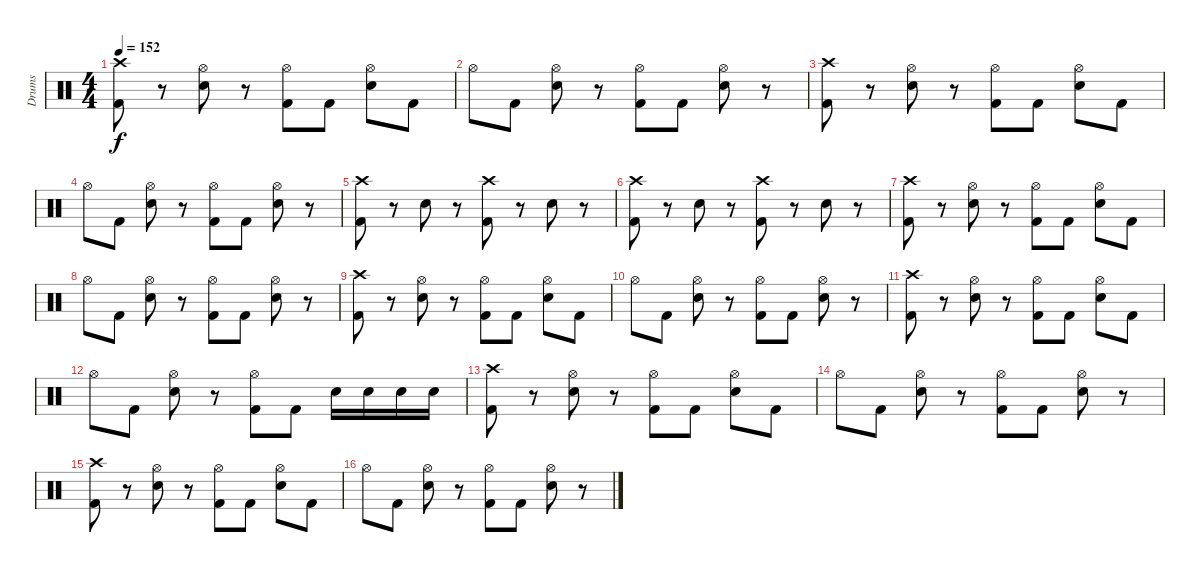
\track ("Drums" "Drums") {instrument percussion}
\staff {score}
\articulation defaults
\ts (4 4)
\tempo 152
\clef neutral
\ks c
("Crash high (hit)" "Kick (hit) 2").8{dy f} r.8 ("Hi-Hat (open)" "Snare (hit) 2").8 r.8 ("Hi-Hat (open)" "Kick (hit) 2").8 "Kick (hit) 2".8 ("Hi-Hat (open)" "Snare (hit) 2").8 "Kick (hit) 2".8 |
"Hi-Hat (open)".8 "Kick (hit) 2".8 ("Hi-Hat (open)" "Snare (hit) 2").8 r.8 ("Hi-Hat (open)" "Kick (hit) 2").8 "Kick (hit) 2".8 ("Hi-Hat (open)" "Snare (hit) 2").8 r.8 |
("Crash high (hit)" "Kick (hit) 2").8 r.8 ("Hi-Hat (open)" "Snare (hit) 2").8 r.8 ("Hi-Hat (open)" "Kick (hit) 2").8 "Kick (hit) 2".8 ("Hi-Hat (open)" "Snare (hit) 2").8 "Kick (hit) 2".8 |
"Hi-Hat (open)".8 "Kick (hit) 2".8 ("Hi-Hat (open)" "Snare (hit) 2").8 r.8 ("Hi-Hat (open)" "Kick (hit) 2").8 "Kick (hit) 2".8 ("Hi-Hat (open)" "Snare (hit) 2").8 r.8 |
("Crash high (hit)" "Kick (hit) 2").8 r.8 "Snare (hit) 2".8 r.8 ("Crash high (hit)" "Kick (hit) 2").8 r.8 "Snare (hit) 2".8 r.8 |
("Crash high (hit)" "Kick (hit) 2").8 r.8 "Snare (hit) 2".8 r.8 ("Crash high (hit)" "Kick (hit) 2").8 r.8 "Snare (hit) 2".8 r.8 |
("Crash high (hit)" "Kick (hit) 2").8 r.8 ("Hi-Hat (open)" "Snare (hit) 2").8 r.8 ("Hi-Hat (open)" "Kick (hit) 2").8 "Kick (hit) 2".8 ("Hi-Hat (open)" "Snare (hit) 2").8 "Kick (hit) 2".8 |
"Hi-Hat (open)".8 "Kick (hit) 2".8 ("Hi-Hat (open)" "Snare (hit) 2").8 r.8 ("Hi-Hat (open)" "Kick (hit) 2").8 "Kick (hit) 2".8 ("Hi-Hat (open)" "Snare (hit) 2").8 r.8 |
("Crash high (hit)" "Kick (hit) 2").8 r.8 ("Hi-Hat (open)" "Snare (hit) 2").8 r.8 ("Hi-Hat (open)" "Kick (hit) 2").8 "Kick (hit) 2".8 ("Hi-Hat (open)" "Snare (hit) 2").8 "Kick (hit) 2".8 |
"Hi-Hat (open)".8 "Kick (hit) 2".8 ("Hi-Hat (open)" "Snare (hit) 2").8 r.8 ("Hi-Hat (open)" "Kick (hit) 2").8 "Kick (hit) 2".8 ("Hi-Hat (open)" "Snare (hit) 2").8 r.8 |
("Crash high (hit)" "Kick (hit) 2").8 r.8 ("Hi-Hat (open)" "Snare (hit) 2").8 r.8 ("Hi-Hat (open)" "Kick (hit) 2").8 "Kick (hit) 2".8 ("Hi-Hat (open)" "Snare (hit) 2").8 "Kick (hit) 2".8 |
"Hi-Hat (open)".8 "Kick (hit) 2".8 ("Hi-Hat (open)" "Snare (hit) 2").8 r.8 ("Hi-Hat (open)" "Kick (hit) 2").8 "Kick (hit) 2".8 "Snare (hit) 2".16 "Snare (hit) 2".16 "Snare (hit) 2".16 "Snare (hit) 2".16 |
("Crash high (hit)" "Kick (hit) 2").8 r.8 ("Hi-Hat (open)" "Snare (hit) 2").8 r.8 ("Hi-Hat (open)" "Kick (hit) 2").8 "Kick (hit) 2".8 ("Hi-Hat (open)" "Snare (hit) 2").8 "Kick (hit) 2".8 |
"Hi-Hat (open)".8 "Kick (hit) 2".8 ("Hi-Hat (open)" "Snare (hit) 2").8 r.8 ("Hi-Hat (open)" "Kick (hit) 2").8 "Kick (hit) 2".8 ("Hi-Hat (open)" "Snare (hit) 2").8 r.8 |
("Crash high (hit)" "Kick (hit) 2").8 r.8 ("Hi-Hat (open)" "Snare (hit) 2").8 r.8 ("Hi-Hat (open)" "Kick (hit) 2").8 "Kick (hit) 2".8 ("Hi-Hat (open)" "Snare (hit) 2").8 "Kick (hit) 2".8 |
"Hi-Hat (open)".8 "Kick (hit) 2".8 ("Hi-Hat (open)" "Snare (hit) 2").8 r.8 ("Hi-Hat (open)" "Kick (hit) 2").8 "Kick (hit) 2".8 ("Hi-Hat (open)" "Snare (hit) 2").8 r.8
